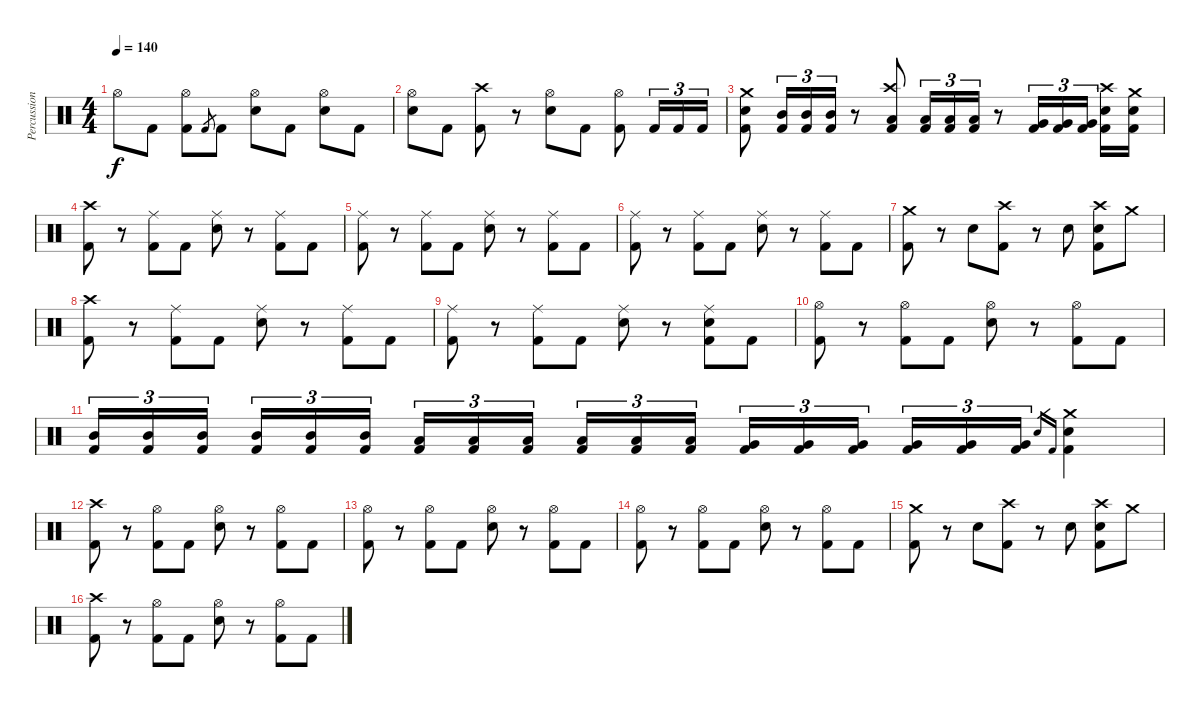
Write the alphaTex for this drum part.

\track ("Percussion" "Percussion") {instrument percussion}
\staff {score}
\articulation defaults
\ts (4 4)
\tempo 140
\clef neutral
\ks c "Hi-Hat (open)".8{dy f} "Kick (hit) 2".8
("Hi-Hat (open)" "Kick (hit) 2").8 "Kick (hit) 2".8{gr} "Kick (hit) 2".8 ("Hi-Hat (open)" "Snare (hit) 2").8 "Kick (hit) 2".8 ("Hi-Hat (open)" "Snare (hit) 2").8 "Kick (hit) 2".8 |
("Hi-Hat (open)" "Snare (hit) 2").8 "Kick (hit) 2".8 ("Crash high (hit)" "Kick (hit) 2").8 r.8 ("Hi-Hat (open)" "Snare (hit) 2").8 "Kick (hit) 2".8 ("Hi-Hat (open)" "Kick (hit) 2").8 "Kick (hit) 2".16{tu (3 2)} "Kick (hit) 2".16{tu (3 2)} "Kick (hit) 2".16{tu (3 2)} |
("Crash medium (hit)" "Snare (hit) 2" "Kick (hit) 2").8 ("Mid Tom (hit)" "Kick (hit) 2").16{tu (3 2)} ("Mid Tom (hit)" "Kick (hit) 2").16{tu (3 2)} ("Mid Tom (hit)" "Kick (hit) 2").16{tu (3 2)} r.8 ("Crash high (hit)" "Low Tom (hit)" "Kick (hit) 2").8 ("Low Tom (hit)" "Kick (hit) 2").16{tu (3 2)} ("Low Tom (hit)" "Kick (hit) 2").16{tu (3 2)} ("Low Tom (hit)" "Kick (hit) 2").16{tu (3 2)} r.8 ("Very Low Tom (hit)" "Kick (hit) 2").16{tu (3 2)} ("Very Low Tom (hit)" "Kick (hit) 2").16{tu (3 2)} ("Very Low Tom (hit)" "Kick (hit) 2").16{tu (3 2)} ("Crash high (hit)" "Snare (hit) 2" "Kick (hit) 2").16 ("Crash medium (hit)" "Snare (hit) 2" "Kick (hit) 2").16 |
("Crash high (hit)" "Kick (hit) 2").8 r.8 ("Ride (middle)" "Kick (hit) 2").8 "Kick (hit) 2".8 ("Ride (middle)" "Snare (hit) 2").8 r.8 ("Ride (middle)" "Kick (hit) 2").8 "Kick (hit) 2".8 |
("Ride (middle)" "Kick (hit) 2").8 r.8 ("Ride (middle)" "Kick (hit) 2").8 "Kick (hit) 2".8 ("Ride (middle)" "Snare (hit) 2").8 r.8 ("Ride (middle)" "Kick (hit) 2").8 "Kick (hit) 2".8 |
("Ride (middle)" "Kick (hit) 2").8 r.8 ("Ride (middle)" "Kick (hit) 2").8 "Kick (hit) 2".8 ("Ride (middle)" "Snare (hit) 2").8 r.8 ("Ride (middle)" "Kick (hit) 2").8 "Kick (hit) 2".8 |
("Crash medium (hit)" "Kick (hit) 2").8 r.8 "Snare (hit) 2".8 ("Crash high (hit)" "Kick (hit) 2").8 r.8 "Snare (hit) 2".8 ("Crash high (hit)" "Snare (hit) 2" "Kick (hit) 2").8 "Crash medium (hit)".8 |
("Crash high (hit)" "Kick (hit) 2").8 r.8 ("Ride (middle)" "Kick (hit) 2").8 "Kick (hit) 2".8 ("Ride (middle)" "Snare (hit) 2").8 r.8 ("Ride (middle)" "Kick (hit) 2").8 "Kick (hit) 2".8 |
("Ride (middle)" "Kick (hit) 2").8 r.8 ("Ride (middle)" "Kick (hit) 2").8 "Kick (hit) 2".8 ("Ride (middle)" "Snare (hit) 2").8 r.8 ("Ride (middle)" "Snare (hit) 2" "Kick (hit) 2").8 "Kick (hit) 2".8 |
("Hi-Hat (open)" "Kick (hit) 2").8 r.8 ("Hi-Hat (open)" "Kick (hit) 2").8 "Kick (hit) 2".8 ("Hi-Hat (open)" "Snare (hit) 2").8 r.8 ("Hi-Hat (open)" "Kick (hit) 2").8 "Kick (hit) 2".8 |
("Mid Tom (hit)" "Kick (hit) 2").16{tu (3 2)} ("Mid Tom (hit)" "Kick (hit) 2").16{tu (3 2)} ("Mid Tom (hit)" "Kick (hit) 2").16{tu (3 2)} ("Mid Tom (hit)" "Kick (hit) 2").16{tu (3 2)} ("Mid Tom (hit)" "Kick (hit) 2").16{tu (3 2)} ("Mid Tom (hit)" "Kick (hit) 2").16{tu (3 2)} ("Low Tom (hit)" "Kick (hit) 2").16{tu (3 2)} ("Low Tom (hit)" "Kick (hit) 2").16{tu (3 2)} ("Low Tom (hit)" "Kick (hit) 2").16{tu (3 2)} ("Low Tom (hit)" "Kick (hit) 2").16{tu (3 2)} ("Low Tom (hit)" "Kick (hit) 2").16{tu (3 2)} ("Low Tom (hit)" "Kick (hit) 2").16{tu (3 2)} ("Very Low Tom (hit)" "Kick (hit) 2").16{tu (3 2)} ("Very Low Tom (hit)" "Kick (hit) 2").16{tu (3 2)} ("Very Low Tom (hit)" "Kick (hit) 2").16{tu (3 2)} ("Very Low Tom (hit)" "Kick (hit) 2").16{tu (3 2)} ("Very Low Tom (hit)" "Kick (hit) 2").16{tu (3 2)} ("Very Low Tom (hit)" "Kick (hit) 2").16{tu (3 2)} "Snare (hit) 2".16{gr} "Kick (hit) 2".16{gr} ("Crash medium (hit)" "Snare (hit) 2" "Kick (hit) 2").4 |
("Crash high (hit)" "Kick (hit) 2").8 r.8 ("Hi-Hat (open)" "Kick (hit) 2").8 "Kick (hit) 2".8 ("Hi-Hat (open)" "Snare (hit) 2").8 r.8 ("Hi-Hat (open)" "Kick (hit) 2").8 "Kick (hit) 2".8 |
("Hi-Hat (open)" "Kick (hit) 2").8 r.8 ("Hi-Hat (open)" "Kick (hit) 2").8 "Kick (hit) 2".8 ("Hi-Hat (open)" "Snare (hit) 2").8 r.8 ("Hi-Hat (open)" "Kick (hit) 2").8 "Kick (hit) 2".8 |
("Hi-Hat (open)" "Kick (hit) 2").8 r.8 ("Hi-Hat (open)" "Kick (hit) 2").8 "Kick (hit) 2".8 ("Hi-Hat (open)" "Snare (hit) 2").8 r.8 ("Hi-Hat (open)" "Kick (hit) 2").8 "Kick (hit) 2".8 |
("Crash medium (hit)" "Kick (hit) 2").8 r.8 "Snare (hit) 2".8 ("Crash high (hit)" "Kick (hit) 2").8 r.8 "Snare (hit) 2".8 ("Crash high (hit)" "Snare (hit) 2" "Kick (hit) 2").8 "Crash medium (hit)".8 |
("Crash high (hit)" "Kick (hit) 2").8 r.8 ("Hi-Hat (open)" "Kick (hit) 2").8 "Kick (hit) 2".8 ("Hi-Hat (open)" "Snare (hit) 2").8 r.8 ("Hi-Hat (open)" "Kick (hit) 2").8 "Kick (hit) 2".8
